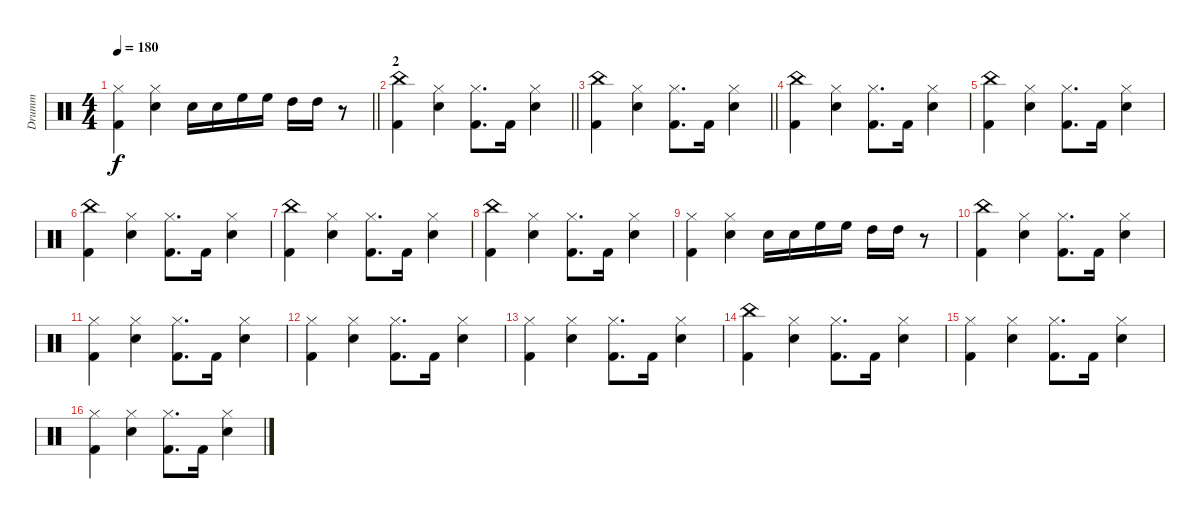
\track ("Drumm" "Drumm") {instrument percussion}
\staff {score}
\articulation defaults
\ts (4 4)
\tempo 180
\clef neutral
\barLineRight lightlight
\ks c
("Hi-Hat (closed)" "Kick (hit) 2").4{dy f} ("Hi-Hat (closed)" "Electric Snare (hit)").4 "Electric Snare (hit)".16 "Electric Snare (hit)".16 "High Floor Tom (hit)".16 "High Floor Tom (hit)".16 "High Tom (hit)".16 "High Tom (hit)".16 r.8 |
\section ("" "2")
\barLineRight lightlight
("China (hit)" "Kick (hit) 2").4 ("Hi-Hat (closed)" "Electric Snare (hit)").4 ("Hi-Hat (closed)" "Kick (hit) 2").8{d} "Kick (hit) 2".16 ("Hi-Hat (closed)" "Electric Snare (hit)").4 |
\barLineRight lightlight
("China (hit)" "Kick (hit) 2").4 ("Hi-Hat (closed)" "Electric Snare (hit)").4 ("Hi-Hat (closed)" "Kick (hit) 2").8{d} "Kick (hit) 2".16 ("Hi-Hat (closed)" "Electric Snare (hit)").4 |
("China (hit)" "Kick (hit) 2").4 ("Hi-Hat (closed)" "Electric Snare (hit)").4 ("Hi-Hat (closed)" "Kick (hit) 2").8{d} "Kick (hit) 2".16 ("Hi-Hat (closed)" "Electric Snare (hit)").4 |
("China (hit)" "Kick (hit) 2").4 ("Hi-Hat (closed)" "Electric Snare (hit)").4 ("Hi-Hat (closed)" "Kick (hit) 2").8{d} "Kick (hit) 2".16 ("Hi-Hat (closed)" "Electric Snare (hit)").4 |
("China (hit)" "Kick (hit) 2").4 ("Hi-Hat (closed)" "Electric Snare (hit)").4 ("Hi-Hat (closed)" "Kick (hit) 2").8{d} "Kick (hit) 2".16 ("Hi-Hat (closed)" "Electric Snare (hit)").4 |
("China (hit)" "Kick (hit) 2").4 ("Hi-Hat (closed)" "Electric Snare (hit)").4 ("Hi-Hat (closed)" "Kick (hit) 2").8{d} "Kick (hit) 2".16 ("Hi-Hat (closed)" "Electric Snare (hit)").4 |
("China (hit)" "Kick (hit) 2").4 ("Hi-Hat (closed)" "Electric Snare (hit)").4 ("Hi-Hat (closed)" "Kick (hit) 2").8{d} "Kick (hit) 2".16 ("Hi-Hat (closed)" "Electric Snare (hit)").4 |
("Hi-Hat (closed)" "Kick (hit) 2").4 ("Hi-Hat (closed)" "Electric Snare (hit)").4 "Electric Snare (hit)".16 "Electric Snare (hit)".16 "High Floor Tom (hit)".16 "High Floor Tom (hit)".16 "High Tom (hit)".16 "High Tom (hit)".16 r.8 |
("China (hit)" "Kick (hit) 2").4 ("Hi-Hat (closed)" "Electric Snare (hit)").4 ("Hi-Hat (closed)" "Kick (hit) 2").8{d} "Kick (hit) 2".16 ("Hi-Hat (closed)" "Electric Snare (hit)").4 |
("Hi-Hat (closed)" "Kick (hit) 2").4 ("Hi-Hat (closed)" "Electric Snare (hit)").4 ("Hi-Hat (closed)" "Kick (hit) 2").8{d} "Kick (hit) 2".16 ("Hi-Hat (closed)" "Electric Snare (hit)").4 |
("Hi-Hat (closed)" "Kick (hit) 2").4 ("Hi-Hat (closed)" "Electric Snare (hit)").4 ("Hi-Hat (closed)" "Kick (hit) 2").8{d} "Kick (hit) 2".16 ("Hi-Hat (closed)" "Electric Snare (hit)").4 |
("Hi-Hat (closed)" "Kick (hit) 2").4 ("Hi-Hat (closed)" "Electric Snare (hit)").4 ("Hi-Hat (closed)" "Kick (hit) 2").8{d} "Kick (hit) 2".16 ("Hi-Hat (closed)" "Electric Snare (hit)").4 |
("China (hit)" "Kick (hit) 2").4 ("Hi-Hat (closed)" "Electric Snare (hit)").4 ("Hi-Hat (closed)" "Kick (hit) 2").8{d} "Kick (hit) 2".16 ("Hi-Hat (closed)" "Electric Snare (hit)").4 |
("Hi-Hat (closed)" "Kick (hit) 2").4 ("Hi-Hat (closed)" "Electric Snare (hit)").4 ("Hi-Hat (closed)" "Kick (hit) 2").8{d} "Kick (hit) 2".16 ("Hi-Hat (closed)" "Electric Snare (hit)").4 |
("Hi-Hat (closed)" "Kick (hit) 2").4 ("Hi-Hat (closed)" "Electric Snare (hit)").4 ("Hi-Hat (closed)" "Kick (hit) 2").8{d} "Kick (hit) 2".16 ("Hi-Hat (closed)" "Electric Snare (hit)").4
